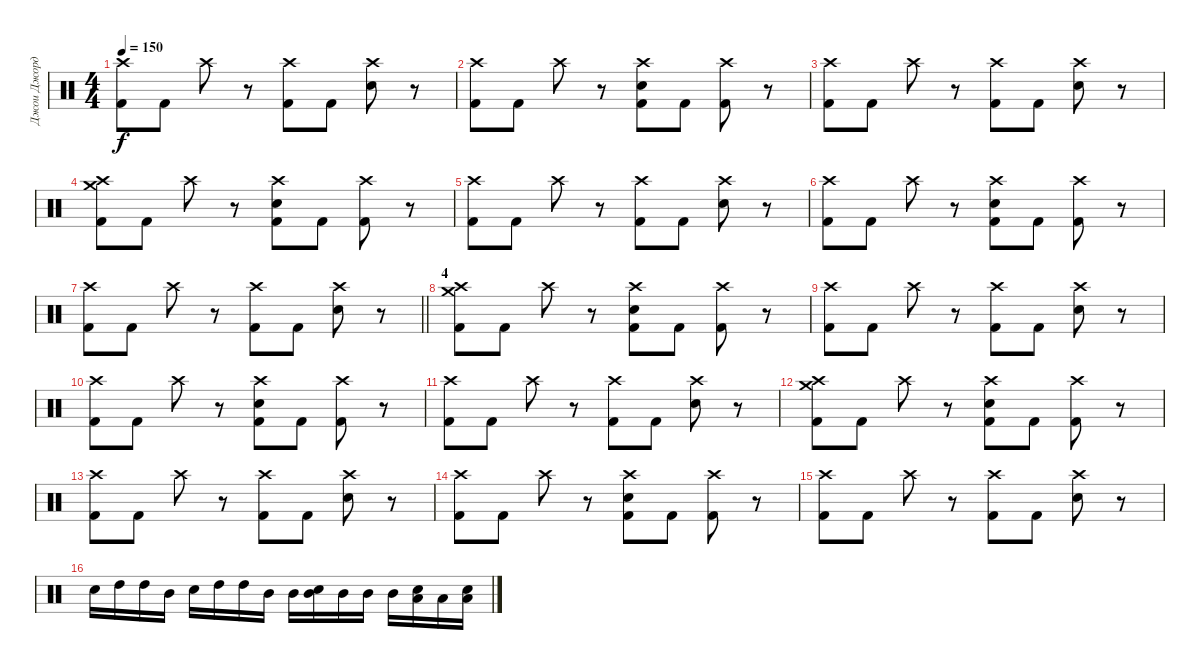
\track ("Джои Джордисон" "Джои Джорд") {instrument percussion}
\staff {score}
\articulation defaults
\ts (4 4)
\tempo 150
\clef neutral
\ks c
("Crash high (hit)" "Kick (hit) 2").8{dy f} "Kick (hit) 2".8 "Crash high (hit)".8 r.8 ("Crash high (hit)" "Kick (hit) 2").8 "Kick (hit) 2".8 ("Crash high (hit)" "Electric Snare (hit)").8 r.8 |
("Crash high (hit)" "Kick (hit) 2").8 "Kick (hit) 2".8 "Crash high (hit)".8 r.8 ("Crash high (hit)" "Electric Snare (hit)" "Kick (hit) 2").8 "Kick (hit) 2".8 ("Crash high (hit)" "Kick (hit) 2").8 r.8 |
("Crash high (hit)" "Kick (hit) 2").8 "Kick (hit) 2".8 "Crash high (hit)".8 r.8 ("Crash high (hit)" "Kick (hit) 2").8 "Kick (hit) 2".8 ("Crash high (hit)" "Electric Snare (hit)").8 r.8 |
("Crash high (hit)" "Crash medium (hit)" "Kick (hit) 2").8 "Kick (hit) 2".8 "Crash high (hit)".8 r.8 ("Crash high (hit)" "Electric Snare (hit)" "Kick (hit) 2").8 "Kick (hit) 2".8 ("Crash high (hit)" "Kick (hit) 2").8 r.8 |
("Crash high (hit)" "Kick (hit) 2").8 "Kick (hit) 2".8 "Crash high (hit)".8 r.8 ("Crash high (hit)" "Kick (hit) 2").8 "Kick (hit) 2".8 ("Crash high (hit)" "Electric Snare (hit)").8 r.8 |
("Crash high (hit)" "Kick (hit) 2").8 "Kick (hit) 2".8 "Crash high (hit)".8 r.8 ("Crash high (hit)" "Electric Snare (hit)" "Kick (hit) 2").8 "Kick (hit) 2".8 ("Crash high (hit)" "Kick (hit) 2").8 r.8 |
\barLineRight lightlight
("Crash high (hit)" "Kick (hit) 2").8 "Kick (hit) 2".8 "Crash high (hit)".8 r.8 ("Crash high (hit)" "Kick (hit) 2").8 "Kick (hit) 2".8 ("Crash high (hit)" "Electric Snare (hit)").8 r.8 |
\section ("" "4")
("Crash high (hit)" "Crash medium (hit)" "Kick (hit) 2").8 "Kick (hit) 2".8 "Crash high (hit)".8 r.8 ("Crash high (hit)" "Electric Snare (hit)" "Kick (hit) 2").8 "Kick (hit) 2".8 ("Crash high (hit)" "Kick (hit) 2").8 r.8 |
("Crash high (hit)" "Kick (hit) 2").8 "Kick (hit) 2".8 "Crash high (hit)".8 r.8 ("Crash high (hit)" "Kick (hit) 2").8 "Kick (hit) 2".8 ("Crash high (hit)" "Electric Snare (hit)").8 r.8 |
("Crash high (hit)" "Kick (hit) 2").8 "Kick (hit) 2".8 "Crash high (hit)".8 r.8 ("Crash high (hit)" "Electric Snare (hit)" "Kick (hit) 2").8 "Kick (hit) 2".8 ("Crash high (hit)" "Kick (hit) 2").8 r.8 |
("Crash high (hit)" "Kick (hit) 2").8 "Kick (hit) 2".8 "Crash high (hit)".8 r.8 ("Crash high (hit)" "Kick (hit) 2").8 "Kick (hit) 2".8 ("Crash high (hit)" "Electric Snare (hit)").8 r.8 |
("Crash high (hit)" "Crash medium (hit)" "Kick (hit) 2").8 "Kick (hit) 2".8 "Crash high (hit)".8 r.8 ("Crash high (hit)" "Electric Snare (hit)" "Kick (hit) 2").8 "Kick (hit) 2".8 ("Crash high (hit)" "Kick (hit) 2").8 r.8 |
("Crash high (hit)" "Kick (hit) 2").8 "Kick (hit) 2".8 "Crash high (hit)".8 r.8 ("Crash high (hit)" "Kick (hit) 2").8 "Kick (hit) 2".8 ("Crash high (hit)" "Electric Snare (hit)").8 r.8 |
("Crash high (hit)" "Kick (hit) 2").8 "Kick (hit) 2".8 "Crash high (hit)".8 r.8 ("Crash high (hit)" "Electric Snare (hit)" "Kick (hit) 2").8 "Kick (hit) 2".8 ("Crash high (hit)" "Kick (hit) 2").8 r.8 |
("Crash high (hit)" "Kick (hit) 2").8 "Kick (hit) 2".8 "Crash high (hit)".8 r.8 ("Crash high (hit)" "Kick (hit) 2").8 "Kick (hit) 2".8 ("Crash high (hit)" "Electric Snare (hit)").8 r.8 |
"Electric Snare (hit)".16 "High Tom (hit)".16 "High Tom (hit)".16 "Mid Tom (hit)".16 "Electric Snare (hit)".16 "High Tom (hit)".16 "High Tom (hit)".16 "Mid Tom (hit)".16 "Mid Tom (hit)".16 ("Mid Tom (hit)" "Electric Snare (hit)").16 "Mid Tom (hit)".16 "Mid Tom (hit)".16 "Mid Tom (hit)".16 ("Low Tom (hit)" "Electric Snare (hit)").16 "Low Tom (hit)".16 ("Low Tom (hit)" "Electric Snare (hit)").16
